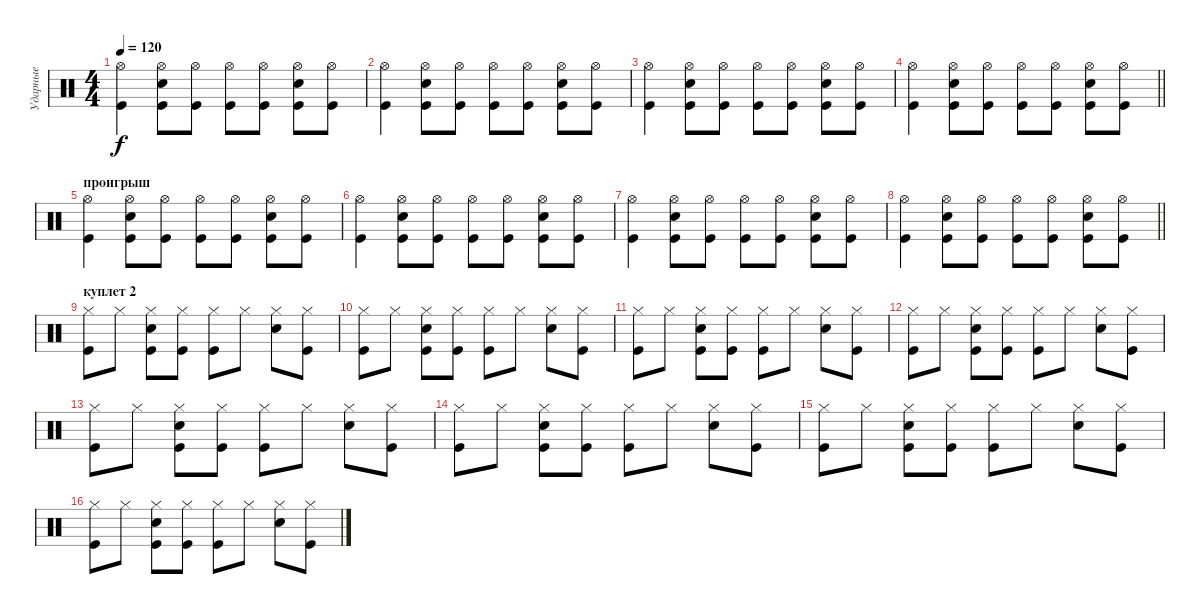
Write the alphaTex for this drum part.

\track ("Ударные" "Ударные") {instrument percussion}
\staff {score}
\articulation defaults
\ts (4 4)
\tempo 120
\clef neutral
\ks c
("Hi-Hat (open)" "Kick (hit)").4{dy f} ("Hi-Hat (open)" "Snare (hit) 2" "Kick (hit)").8 ("Hi-Hat (open)" "Kick (hit)").8 ("Hi-Hat (open)" "Kick (hit)").8 ("Hi-Hat (open)" "Kick (hit)").8 ("Hi-Hat (open)" "Snare (hit) 2" "Kick (hit)").8 ("Hi-Hat (open)" "Kick (hit)").8 |
("Hi-Hat (open)" "Kick (hit)").4 ("Hi-Hat (open)" "Snare (hit) 2" "Kick (hit)").8 ("Hi-Hat (open)" "Kick (hit)").8 ("Hi-Hat (open)" "Kick (hit)").8 ("Hi-Hat (open)" "Kick (hit)").8 ("Hi-Hat (open)" "Snare (hit) 2" "Kick (hit)").8 ("Hi-Hat (open)" "Kick (hit)").8 |
("Hi-Hat (open)" "Kick (hit)").4 ("Hi-Hat (open)" "Snare (hit) 2" "Kick (hit)").8 ("Hi-Hat (open)" "Kick (hit)").8 ("Hi-Hat (open)" "Kick (hit)").8 ("Hi-Hat (open)" "Kick (hit)").8 ("Hi-Hat (open)" "Snare (hit) 2" "Kick (hit)").8 ("Hi-Hat (open)" "Kick (hit)").8 |
\barLineRight lightlight
("Hi-Hat (open)" "Kick (hit)").4 ("Hi-Hat (open)" "Snare (hit) 2" "Kick (hit)").8 ("Hi-Hat (open)" "Kick (hit)").8 ("Hi-Hat (open)" "Kick (hit)").8 ("Hi-Hat (open)" "Kick (hit)").8 ("Hi-Hat (open)" "Snare (hit) 2" "Kick (hit)").8 ("Hi-Hat (open)" "Kick (hit)").8 |
\section ("" "проигрыш")
("Hi-Hat (open)" "Kick (hit)").4 ("Hi-Hat (open)" "Snare (hit) 2" "Kick (hit)").8 ("Hi-Hat (open)" "Kick (hit)").8 ("Hi-Hat (open)" "Kick (hit)").8 ("Hi-Hat (open)" "Kick (hit)").8 ("Hi-Hat (open)" "Snare (hit) 2" "Kick (hit)").8 ("Hi-Hat (open)" "Kick (hit)").8 |
("Hi-Hat (open)" "Kick (hit)").4 ("Hi-Hat (open)" "Snare (hit) 2" "Kick (hit)").8 ("Hi-Hat (open)" "Kick (hit)").8 ("Hi-Hat (open)" "Kick (hit)").8 ("Hi-Hat (open)" "Kick (hit)").8 ("Hi-Hat (open)" "Snare (hit) 2" "Kick (hit)").8 ("Hi-Hat (open)" "Kick (hit)").8 |
("Hi-Hat (open)" "Kick (hit)").4 ("Hi-Hat (open)" "Snare (hit) 2" "Kick (hit)").8 ("Hi-Hat (open)" "Kick (hit)").8 ("Hi-Hat (open)" "Kick (hit)").8 ("Hi-Hat (open)" "Kick (hit)").8 ("Hi-Hat (open)" "Snare (hit) 2" "Kick (hit)").8 ("Hi-Hat (open)" "Kick (hit)").8 |
\barLineRight lightlight
("Hi-Hat (open)" "Kick (hit)").4 ("Hi-Hat (open)" "Snare (hit) 2" "Kick (hit)").8 ("Hi-Hat (open)" "Kick (hit)").8 ("Hi-Hat (open)" "Kick (hit)").8 ("Hi-Hat (open)" "Kick (hit)").8 ("Hi-Hat (open)" "Snare (hit) 2" "Kick (hit)").8 ("Hi-Hat (open)" "Kick (hit)").8 |
\section ("" "куплет 2 ")
("Hi-Hat (closed)" "Kick (hit)").8 "Hi-Hat (closed)".8 ("Hi-Hat (closed)" "Snare (hit) 2" "Kick (hit)").8 ("Hi-Hat (closed)" "Kick (hit)").8 ("Hi-Hat (closed)" "Kick (hit)").8 "Hi-Hat (closed)".8 ("Hi-Hat (closed)" "Snare (hit) 2").8 ("Hi-Hat (closed)" "Kick (hit)").8 |
("Hi-Hat (closed)" "Kick (hit)").8 "Hi-Hat (closed)".8 ("Hi-Hat (closed)" "Snare (hit) 2" "Kick (hit)").8 ("Hi-Hat (closed)" "Kick (hit)").8 ("Hi-Hat (closed)" "Kick (hit)").8 "Hi-Hat (closed)".8 ("Hi-Hat (closed)" "Snare (hit) 2").8 ("Hi-Hat (closed)" "Kick (hit)").8 |
("Hi-Hat (closed)" "Kick (hit)").8 "Hi-Hat (closed)".8 ("Hi-Hat (closed)" "Snare (hit) 2" "Kick (hit)").8 ("Hi-Hat (closed)" "Kick (hit)").8 ("Hi-Hat (closed)" "Kick (hit)").8 "Hi-Hat (closed)".8 ("Hi-Hat (closed)" "Snare (hit) 2").8 ("Hi-Hat (closed)" "Kick (hit)").8 |
("Hi-Hat (closed)" "Kick (hit)").8 "Hi-Hat (closed)".8 ("Hi-Hat (closed)" "Snare (hit) 2" "Kick (hit)").8 ("Hi-Hat (closed)" "Kick (hit)").8 ("Hi-Hat (closed)" "Kick (hit)").8 "Hi-Hat (closed)".8 ("Hi-Hat (closed)" "Snare (hit) 2").8 ("Hi-Hat (closed)" "Kick (hit)").8 |
("Hi-Hat (closed)" "Kick (hit)").8 "Hi-Hat (closed)".8 ("Hi-Hat (closed)" "Snare (hit) 2" "Kick (hit)").8 ("Hi-Hat (closed)" "Kick (hit)").8 ("Hi-Hat (closed)" "Kick (hit)").8 "Hi-Hat (closed)".8 ("Hi-Hat (closed)" "Snare (hit) 2").8 ("Hi-Hat (closed)" "Kick (hit)").8 |
("Hi-Hat (closed)" "Kick (hit)").8 "Hi-Hat (closed)".8 ("Hi-Hat (closed)" "Snare (hit) 2" "Kick (hit)").8 ("Hi-Hat (closed)" "Kick (hit)").8 ("Hi-Hat (closed)" "Kick (hit)").8 "Hi-Hat (closed)".8 ("Hi-Hat (closed)" "Snare (hit) 2").8 ("Hi-Hat (closed)" "Kick (hit)").8 |
("Hi-Hat (closed)" "Kick (hit)").8 "Hi-Hat (closed)".8 ("Hi-Hat (closed)" "Snare (hit) 2" "Kick (hit)").8 ("Hi-Hat (closed)" "Kick (hit)").8 ("Hi-Hat (closed)" "Kick (hit)").8 "Hi-Hat (closed)".8 ("Hi-Hat (closed)" "Snare (hit) 2").8 ("Hi-Hat (closed)" "Kick (hit)").8 |
("Hi-Hat (closed)" "Kick (hit)").8 "Hi-Hat (closed)".8 ("Hi-Hat (closed)" "Snare (hit) 2" "Kick (hit)").8 ("Hi-Hat (closed)" "Kick (hit)").8 ("Hi-Hat (closed)" "Kick (hit)").8 "Hi-Hat (closed)".8 ("Hi-Hat (closed)" "Snare (hit) 2").8 ("Hi-Hat (closed)" "Kick (hit)").8
